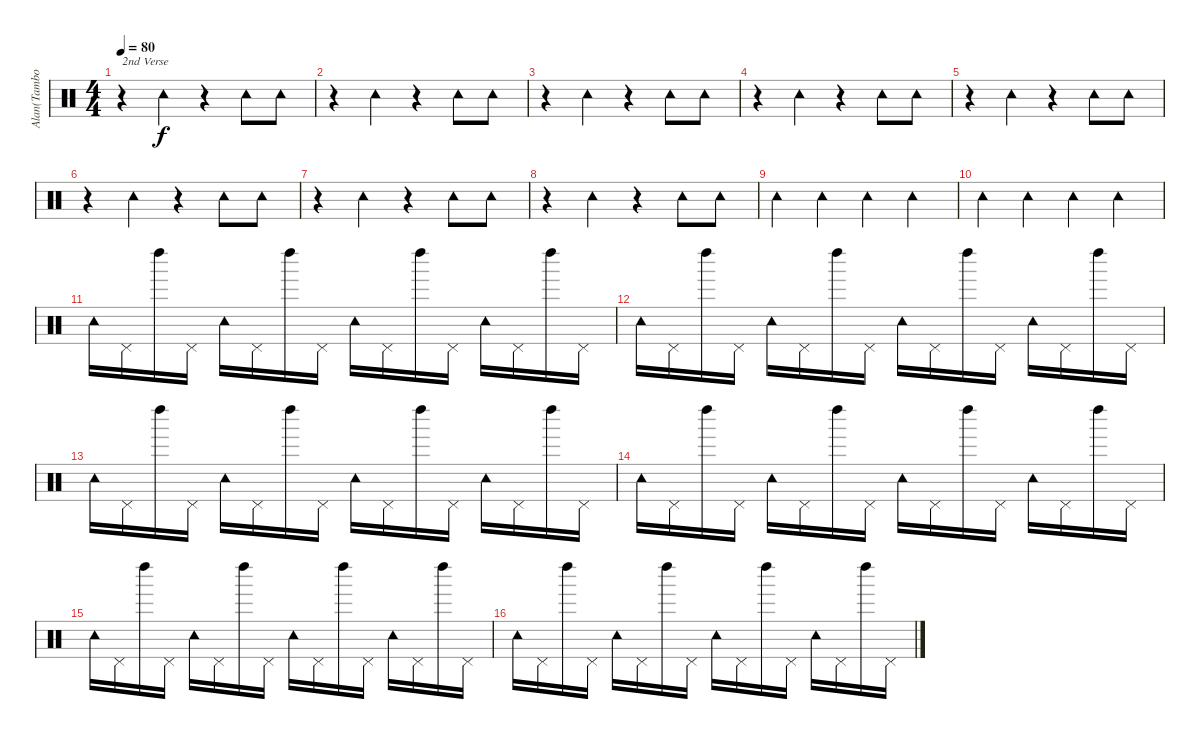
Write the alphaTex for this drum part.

\track ("Alan(Tambourine)" "Alan(Tambo") {instrument percussion}
\staff {score}
\articulation defaults
\ts (4 4)
\tempo 80
\clef neutral
\ks c
r.4{txt "2nd Verse" dy f} "Tambourine (hit)".4 r.4 "Tambourine (hit)".8 "Tambourine (hit)".8 |
r.4 "Tambourine (hit)".4 r.4 "Tambourine (hit)".8 "Tambourine (hit)".8 |
r.4 "Tambourine (hit)".4 r.4 "Tambourine (hit)".8 "Tambourine (hit)".8 |
r.4 "Tambourine (hit)".4 r.4 "Tambourine (hit)".8 "Tambourine (hit)".8 |
r.4 "Tambourine (hit)".4 r.4 "Tambourine (hit)".8 "Tambourine (hit)".8 |
r.4 "Tambourine (hit)".4 r.4 "Tambourine (hit)".8 "Tambourine (hit)".8 |
r.4 "Tambourine (hit)".4 r.4 "Tambourine (hit)".8 "Tambourine (hit)".8 |
r.4 "Tambourine (hit)".4 r.4 "Tambourine (hit)".8 "Tambourine (hit)".8 |
"Tambourine (hit)".4 "Tambourine (hit)".4 "Tambourine (hit)".4 "Tambourine (hit)".4 |
"Tambourine (hit)".4 "Tambourine (hit)".4 "Tambourine (hit)".4 "Tambourine (hit)".4 |
"Tambourine (hit)".16 "Pedal Hi-Hat (hit)".16 "Left Maraca (hit)".16 "Pedal Hi-Hat (hit)".16 "Tambourine (hit)".16 "Pedal Hi-Hat (hit)".16 "Left Maraca (hit)".16 "Pedal Hi-Hat (hit)".16 "Tambourine (hit)".16 "Pedal Hi-Hat (hit)".16 "Left Maraca (hit)".16 "Pedal Hi-Hat (hit)".16 "Tambourine (hit)".16 "Pedal Hi-Hat (hit)".16 "Left Maraca (hit)".16 "Pedal Hi-Hat (hit)".16 |
"Tambourine (hit)".16 "Pedal Hi-Hat (hit)".16 "Left Maraca (hit)".16 "Pedal Hi-Hat (hit)".16 "Tambourine (hit)".16 "Pedal Hi-Hat (hit)".16 "Left Maraca (hit)".16 "Pedal Hi-Hat (hit)".16 "Tambourine (hit)".16 "Pedal Hi-Hat (hit)".16 "Left Maraca (hit)".16 "Pedal Hi-Hat (hit)".16 "Tambourine (hit)".16 "Pedal Hi-Hat (hit)".16 "Left Maraca (hit)".16 "Pedal Hi-Hat (hit)".16 |
"Tambourine (hit)".16 "Pedal Hi-Hat (hit)".16 "Left Maraca (hit)".16 "Pedal Hi-Hat (hit)".16 "Tambourine (hit)".16 "Pedal Hi-Hat (hit)".16 "Left Maraca (hit)".16 "Pedal Hi-Hat (hit)".16 "Tambourine (hit)".16 "Pedal Hi-Hat (hit)".16 "Left Maraca (hit)".16 "Pedal Hi-Hat (hit)".16 "Tambourine (hit)".16 "Pedal Hi-Hat (hit)".16 "Left Maraca (hit)".16 "Pedal Hi-Hat (hit)".16 |
"Tambourine (hit)".16 "Pedal Hi-Hat (hit)".16 "Left Maraca (hit)".16 "Pedal Hi-Hat (hit)".16 "Tambourine (hit)".16 "Pedal Hi-Hat (hit)".16 "Left Maraca (hit)".16 "Pedal Hi-Hat (hit)".16 "Tambourine (hit)".16 "Pedal Hi-Hat (hit)".16 "Left Maraca (hit)".16 "Pedal Hi-Hat (hit)".16 "Tambourine (hit)".16 "Pedal Hi-Hat (hit)".16 "Left Maraca (hit)".16 "Pedal Hi-Hat (hit)".16 |
"Tambourine (hit)".16 "Pedal Hi-Hat (hit)".16 "Left Maraca (hit)".16 "Pedal Hi-Hat (hit)".16 "Tambourine (hit)".16 "Pedal Hi-Hat (hit)".16 "Left Maraca (hit)".16 "Pedal Hi-Hat (hit)".16 "Tambourine (hit)".16 "Pedal Hi-Hat (hit)".16 "Left Maraca (hit)".16 "Pedal Hi-Hat (hit)".16 "Tambourine (hit)".16 "Pedal Hi-Hat (hit)".16 "Left Maraca (hit)".16 "Pedal Hi-Hat (hit)".16 |
"Tambourine (hit)".16 "Pedal Hi-Hat (hit)".16 "Left Maraca (hit)".16 "Pedal Hi-Hat (hit)".16 "Tambourine (hit)".16 "Pedal Hi-Hat (hit)".16 "Left Maraca (hit)".16 "Pedal Hi-Hat (hit)".16 "Tambourine (hit)".16 "Pedal Hi-Hat (hit)".16 "Left Maraca (hit)".16 "Pedal Hi-Hat (hit)".16 "Tambourine (hit)".16 "Pedal Hi-Hat (hit)".16 "Left Maraca (hit)".16 "Pedal Hi-Hat (hit)".16
